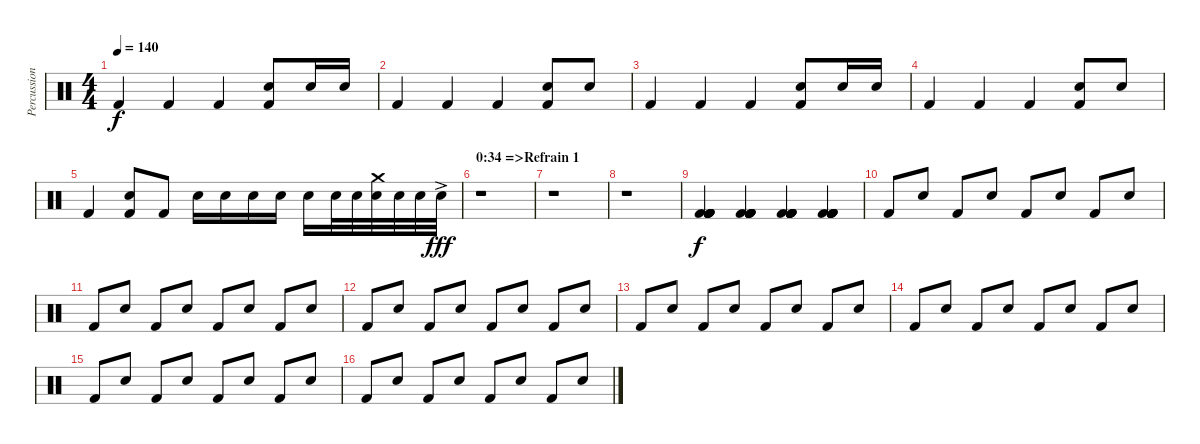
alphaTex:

\track ("Percussions" "Percussion") {instrument percussion}
\staff {score}
\articulation defaults
\ts (4 4)
\tempo 140
\clef neutral
\ks c "Kick (hit) 2".4{dy f} "Kick (hit) 2".4 "Kick (hit) 2".4
("Electric Snare (hit)" "Kick (hit) 2").8 "Electric Snare (hit)".16 "Electric Snare (hit)".16 |
"Kick (hit) 2".4 "Kick (hit) 2".4 "Kick (hit) 2".4 ("Electric Snare (hit)" "Kick (hit) 2").8 "Electric Snare (hit)".8 |
"Kick (hit) 2".4 "Kick (hit) 2".4 "Kick (hit) 2".4 ("Electric Snare (hit)" "Kick (hit) 2").8 "Electric Snare (hit)".16 "Electric Snare (hit)".16 |
"Kick (hit) 2".4 "Kick (hit) 2".4 "Kick (hit) 2".4 ("Electric Snare (hit)" "Kick (hit) 2").8 "Electric Snare (hit)".8 |
"Kick (hit) 2".4 ("Electric Snare (hit)" "Kick (hit) 2").8 "Kick (hit) 2".8 "Snare (hit) 2".16 "Snare (hit) 2".16 "Snare (hit) 2".16 "Snare (hit) 2".16 "Snare (hit) 2".16 "Snare (hit) 2".32 "Snare (hit) 2".32 ("Crash medium (hit)" "Snare (hit) 2").32 "Snare (hit) 2".32 "Snare (hit) 2".32 "Snare (hit) 2"{ac}.32{dy fff} |
\section ("" "0:34 =>Refrain 1")
r.1 |
r.1 |
r.1 |
("Kick (hit) 2" "Kick (hit) 2" "Kick (hit) 2" "Kick (hit) 2" "Kick (hit) 2" "Kick (hit) 2").4{dy f} ("Kick (hit) 2" "Kick (hit) 2" "Kick (hit) 2" "Kick (hit) 2" "Kick (hit) 2" "Kick (hit) 2").4 ("Kick (hit) 2" "Kick (hit) 2" "Kick (hit) 2" "Kick (hit) 2" "Kick (hit) 2" "Kick (hit) 2").4 ("Kick (hit) 2" "Kick (hit) 2" "Kick (hit) 2" "Kick (hit) 2" "Kick (hit) 2" "Kick (hit) 2").4 |
"Kick (hit) 2".8 "Snare (hit) 2".8 "Kick (hit) 2".8 "Snare (hit) 2".8 "Kick (hit) 2".8 "Snare (hit) 2".8 "Kick (hit) 2".8 "Snare (hit) 2".8 |
"Kick (hit) 2".8 "Snare (hit) 2".8 "Kick (hit) 2".8 "Snare (hit) 2".8 "Kick (hit) 2".8 "Snare (hit) 2".8 "Kick (hit) 2".8 "Snare (hit) 2".8 |
"Kick (hit) 2".8 "Snare (hit) 2".8 "Kick (hit) 2".8 "Snare (hit) 2".8 "Kick (hit) 2".8 "Snare (hit) 2".8 "Kick (hit) 2".8 "Snare (hit) 2".8 |
"Kick (hit) 2".8 "Snare (hit) 2".8 "Kick (hit) 2".8 "Snare (hit) 2".8 "Kick (hit) 2".8 "Snare (hit) 2".8 "Kick (hit) 2".8 "Snare (hit) 2".8 |
"Kick (hit) 2".8 "Snare (hit) 2".8 "Kick (hit) 2".8 "Snare (hit) 2".8 "Kick (hit) 2".8 "Snare (hit) 2".8 "Kick (hit) 2".8 "Snare (hit) 2".8 |
"Kick (hit) 2".8 "Snare (hit) 2".8 "Kick (hit) 2".8 "Snare (hit) 2".8 "Kick (hit) 2".8 "Snare (hit) 2".8 "Kick (hit) 2".8 "Snare (hit) 2".8 |
"Kick (hit) 2".8 "Snare (hit) 2".8 "Kick (hit) 2".8 "Snare (hit) 2".8 "Kick (hit) 2".8 "Snare (hit) 2".8 "Kick (hit) 2".8 "Snare (hit) 2".8
